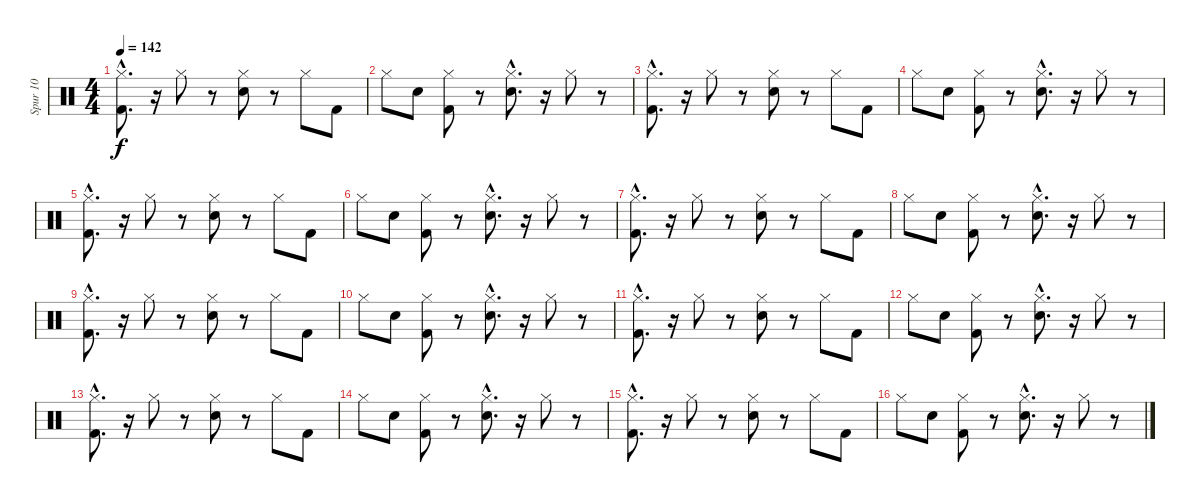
\track ("Spur 10" "Spur 10") {instrument percussion}
\staff {score}
\articulation defaults
\ts (4 4)
\tempo 142
\clef neutral
\ks c
("Kick (hit) 2"{hac} "Hi-Hat (closed)").8{d dy f} r.16 "Hi-Hat (closed)".8 r.8 ("Snare (hit) 2" "Hi-Hat (closed)").8 r.8 "Hi-Hat (closed)".8 "Kick (hit) 2".8 |
"Hi-Hat (closed)".8 "Snare (hit) 2".8 ("Kick (hit) 2" "Hi-Hat (closed)").8 r.8 ("Snare (hit) 2"{hac} "Hi-Hat (closed)").8{d} r.16 "Hi-Hat (closed)".8 r.8 |
("Kick (hit) 2"{hac} "Hi-Hat (closed)").8{d} r.16 "Hi-Hat (closed)".8 r.8 ("Snare (hit) 2" "Hi-Hat (closed)").8 r.8 "Hi-Hat (closed)".8 "Kick (hit) 2".8 |
"Hi-Hat (closed)".8 "Snare (hit) 2".8 ("Kick (hit) 2" "Hi-Hat (closed)").8 r.8 ("Snare (hit) 2"{hac} "Hi-Hat (closed)").8{d} r.16 "Hi-Hat (closed)".8 r.8 |
("Kick (hit) 2"{hac} "Hi-Hat (closed)").8{d} r.16 "Hi-Hat (closed)".8 r.8 ("Snare (hit) 2" "Hi-Hat (closed)").8 r.8 "Hi-Hat (closed)".8 "Kick (hit) 2".8 |
"Hi-Hat (closed)".8 "Snare (hit) 2".8 ("Kick (hit) 2" "Hi-Hat (closed)").8 r.8 ("Snare (hit) 2"{hac} "Hi-Hat (closed)").8{d} r.16 "Hi-Hat (closed)".8 r.8 |
("Kick (hit) 2"{hac} "Hi-Hat (closed)").8{d} r.16 "Hi-Hat (closed)".8 r.8 ("Snare (hit) 2" "Hi-Hat (closed)").8 r.8 "Hi-Hat (closed)".8 "Kick (hit) 2".8 |
"Hi-Hat (closed)".8 "Snare (hit) 2".8 ("Kick (hit) 2" "Hi-Hat (closed)").8 r.8 ("Snare (hit) 2"{hac} "Hi-Hat (closed)").8{d} r.16 "Hi-Hat (closed)".8 r.8 |
("Kick (hit) 2"{hac} "Hi-Hat (closed)").8{d} r.16 "Hi-Hat (closed)".8 r.8 ("Snare (hit) 2" "Hi-Hat (closed)").8 r.8 "Hi-Hat (closed)".8 "Kick (hit) 2".8 |
"Hi-Hat (closed)".8 "Snare (hit) 2".8 ("Kick (hit) 2" "Hi-Hat (closed)").8 r.8 ("Snare (hit) 2"{hac} "Hi-Hat (closed)").8{d} r.16 "Hi-Hat (closed)".8 r.8 |
("Kick (hit) 2"{hac} "Hi-Hat (closed)").8{d} r.16 "Hi-Hat (closed)".8 r.8 ("Snare (hit) 2" "Hi-Hat (closed)").8 r.8 "Hi-Hat (closed)".8 "Kick (hit) 2".8 |
"Hi-Hat (closed)".8 "Snare (hit) 2".8 ("Kick (hit) 2" "Hi-Hat (closed)").8 r.8 ("Snare (hit) 2"{hac} "Hi-Hat (closed)").8{d} r.16 "Hi-Hat (closed)".8 r.8 |
("Kick (hit) 2"{hac} "Hi-Hat (closed)").8{d} r.16 "Hi-Hat (closed)".8 r.8 ("Snare (hit) 2" "Hi-Hat (closed)").8 r.8 "Hi-Hat (closed)".8 "Kick (hit) 2".8 |
"Hi-Hat (closed)".8 "Snare (hit) 2".8 ("Kick (hit) 2" "Hi-Hat (closed)").8 r.8 ("Snare (hit) 2"{hac} "Hi-Hat (closed)").8{d} r.16 "Hi-Hat (closed)".8 r.8 |
("Kick (hit) 2"{hac} "Hi-Hat (closed)").8{d} r.16 "Hi-Hat (closed)".8 r.8 ("Snare (hit) 2" "Hi-Hat (closed)").8 r.8 "Hi-Hat (closed)".8 "Kick (hit) 2".8 |
"Hi-Hat (closed)".8 "Snare (hit) 2".8 ("Kick (hit) 2" "Hi-Hat (closed)").8 r.8 ("Snare (hit) 2"{hac} "Hi-Hat (closed)").8{d} r.16 "Hi-Hat (closed)".8 r.8
